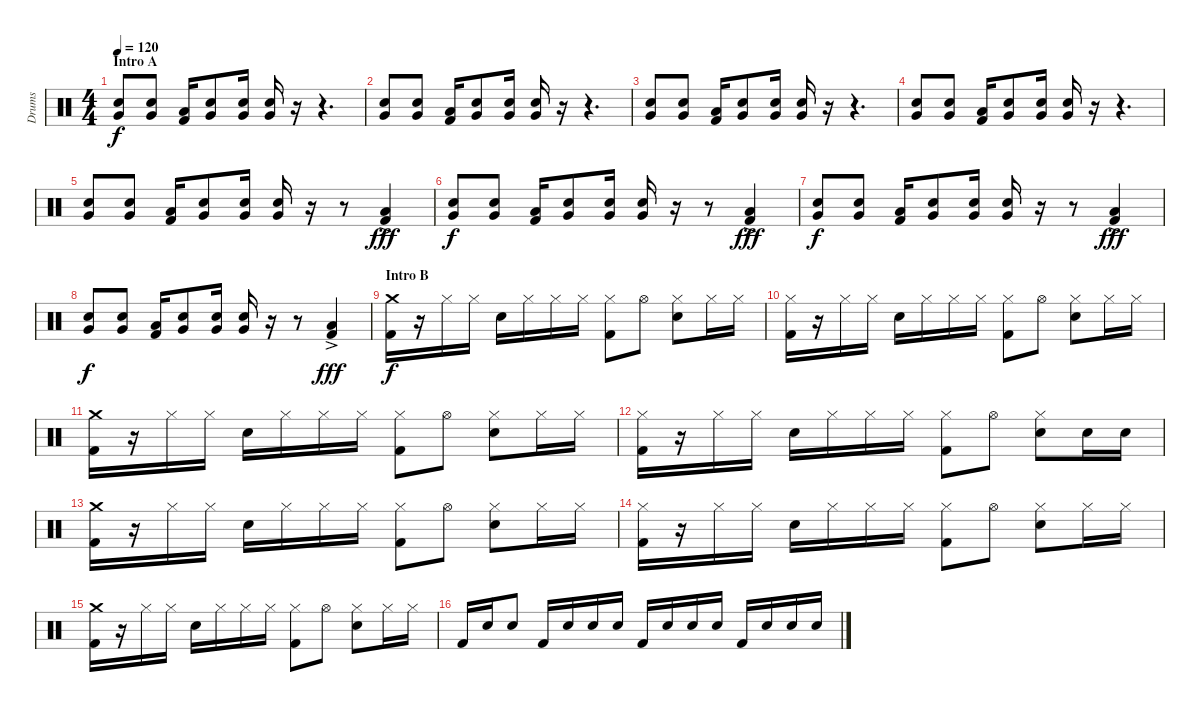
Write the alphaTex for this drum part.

\track ("Drums" "Drums") {instrument percussion}
\staff {score}
\articulation defaults
\ts (4 4)
\section ("" "Intro A")
\tempo 120
\clef neutral
\ks c
("Very Low Tom (hit)" "Electric Snare (hit)").8{dy f} ("Very Low Tom (hit)" "Electric Snare (hit)").8 ("Low Floor Tom (hit)" "Kick (hit) 2").16 ("Very Low Tom (hit)" "Electric Snare (hit)").8 ("Very Low Tom (hit)" "Electric Snare (hit)").16 ("Very Low Tom (hit)" "Electric Snare (hit)").16 r.16 r.4{d} |
("Very Low Tom (hit)" "Electric Snare (hit)").8 ("Very Low Tom (hit)" "Electric Snare (hit)").8 ("Low Floor Tom (hit)" "Kick (hit) 2").16 ("Very Low Tom (hit)" "Electric Snare (hit)").8 ("Very Low Tom (hit)" "Electric Snare (hit)").16 ("Very Low Tom (hit)" "Electric Snare (hit)").16 r.16 r.4{d} |
("Very Low Tom (hit)" "Electric Snare (hit)").8 ("Very Low Tom (hit)" "Electric Snare (hit)").8 ("Low Floor Tom (hit)" "Kick (hit) 2").16 ("Very Low Tom (hit)" "Electric Snare (hit)").8 ("Very Low Tom (hit)" "Electric Snare (hit)").16 ("Very Low Tom (hit)" "Electric Snare (hit)").16 r.16 r.4{d} |
("Very Low Tom (hit)" "Electric Snare (hit)").8 ("Very Low Tom (hit)" "Electric Snare (hit)").8 ("Low Floor Tom (hit)" "Kick (hit) 2").16 ("Very Low Tom (hit)" "Electric Snare (hit)").8 ("Very Low Tom (hit)" "Electric Snare (hit)").16 ("Very Low Tom (hit)" "Electric Snare (hit)").16 r.16 r.4{d} |
("Very Low Tom (hit)" "Electric Snare (hit)").8 ("Very Low Tom (hit)" "Electric Snare (hit)").8 ("Low Floor Tom (hit)" "Kick (hit) 2").16 ("Very Low Tom (hit)" "Electric Snare (hit)").8 ("Very Low Tom (hit)" "Electric Snare (hit)").16 ("Very Low Tom (hit)" "Electric Snare (hit)").16 r.16 r.8 ("Low Floor Tom (hit)"{ac} "Kick (hit) 2"{ac}).4{dy fff} |
("Very Low Tom (hit)" "Electric Snare (hit)").8{dy f} ("Very Low Tom (hit)" "Electric Snare (hit)").8 ("Low Floor Tom (hit)" "Kick (hit) 2").16 ("Very Low Tom (hit)" "Electric Snare (hit)").8 ("Very Low Tom (hit)" "Electric Snare (hit)").16 ("Very Low Tom (hit)" "Electric Snare (hit)").16 r.16 r.8 ("Low Floor Tom (hit)"{ac} "Kick (hit) 2"{ac}).4{dy fff} |
("Very Low Tom (hit)" "Electric Snare (hit)").8{dy f} ("Very Low Tom (hit)" "Electric Snare (hit)").8 ("Low Floor Tom (hit)" "Kick (hit) 2").16 ("Very Low Tom (hit)" "Electric Snare (hit)").8 ("Very Low Tom (hit)" "Electric Snare (hit)").16 ("Very Low Tom (hit)" "Electric Snare (hit)").16 r.16 r.8 ("Low Floor Tom (hit)"{ac} "Kick (hit) 2"{ac}).4{dy fff} |
("Very Low Tom (hit)" "Electric Snare (hit)").8{dy f} ("Very Low Tom (hit)" "Electric Snare (hit)").8 ("Low Floor Tom (hit)" "Kick (hit) 2").16 ("Very Low Tom (hit)" "Electric Snare (hit)").8 ("Very Low Tom (hit)" "Electric Snare (hit)").16 ("Very Low Tom (hit)" "Electric Snare (hit)").16 r.16 r.8 ("Low Floor Tom (hit)"{ac} "Kick (hit) 2"{ac}).4{dy fff} |
\section ("" "Intro B")
("Crash medium (hit)" "Kick (hit) 2").16{dy f} r.16 "Hi-Hat (closed)".16 "Hi-Hat (closed)".16 "Electric Snare (hit)".16 "Hi-Hat (closed)".16 "Hi-Hat (closed)".16 "Hi-Hat (closed)".16 ("Hi-Hat (closed)" "Kick (hit) 2").8 "Hi-Hat (open)".8 ("Hi-Hat (closed)" "Electric Snare (hit)").8 "Hi-Hat (closed)".16 "Hi-Hat (closed)".16 |
("Hi-Hat (closed)" "Kick (hit) 2").16 r.16 "Hi-Hat (closed)".16 "Hi-Hat (closed)".16 "Electric Snare (hit)".16 "Hi-Hat (closed)".16 "Hi-Hat (closed)".16 "Hi-Hat (closed)".16 ("Hi-Hat (closed)" "Kick (hit) 2").8 "Hi-Hat (open)".8 ("Hi-Hat (closed)" "Electric Snare (hit)").8 "Hi-Hat (closed)".16 "Hi-Hat (closed)".16 |
("Crash medium (hit)" "Kick (hit) 2").16 r.16 "Hi-Hat (closed)".16 "Hi-Hat (closed)".16 "Electric Snare (hit)".16 "Hi-Hat (closed)".16 "Hi-Hat (closed)".16 "Hi-Hat (closed)".16 ("Hi-Hat (closed)" "Kick (hit) 2").8 "Hi-Hat (open)".8 ("Hi-Hat (closed)" "Electric Snare (hit)").8 "Hi-Hat (closed)".16 "Hi-Hat (closed)".16 |
("Hi-Hat (closed)" "Kick (hit) 2").16 r.16 "Hi-Hat (closed)".16 "Hi-Hat (closed)".16 "Electric Snare (hit)".16 "Hi-Hat (closed)".16 "Hi-Hat (closed)".16 "Hi-Hat (closed)".16 ("Hi-Hat (closed)" "Kick (hit) 2").8 "Hi-Hat (open)".8 ("Hi-Hat (closed)" "Electric Snare (hit)").8 "Electric Snare (hit)".16 "Electric Snare (hit)".16 |
("Crash medium (hit)" "Kick (hit) 2").16 r.16 "Hi-Hat (closed)".16 "Hi-Hat (closed)".16 "Electric Snare (hit)".16 "Hi-Hat (closed)".16 "Hi-Hat (closed)".16 "Hi-Hat (closed)".16 ("Hi-Hat (closed)" "Kick (hit) 2").8 "Hi-Hat (open)".8 ("Hi-Hat (closed)" "Electric Snare (hit)").8 "Hi-Hat (closed)".16 "Hi-Hat (closed)".16 |
("Hi-Hat (closed)" "Kick (hit) 2").16 r.16 "Hi-Hat (closed)".16 "Hi-Hat (closed)".16 "Electric Snare (hit)".16 "Hi-Hat (closed)".16 "Hi-Hat (closed)".16 "Hi-Hat (closed)".16 ("Hi-Hat (closed)" "Kick (hit) 2").8 "Hi-Hat (open)".8 ("Hi-Hat (closed)" "Electric Snare (hit)").8 "Hi-Hat (closed)".16 "Hi-Hat (closed)".16 |
("Crash medium (hit)" "Kick (hit) 2").16 r.16 "Hi-Hat (closed)".16 "Hi-Hat (closed)".16 "Electric Snare (hit)".16 "Hi-Hat (closed)".16 "Hi-Hat (closed)".16 "Hi-Hat (closed)".16 ("Hi-Hat (closed)" "Kick (hit) 2").8 "Hi-Hat (open)".8 ("Hi-Hat (closed)" "Electric Snare (hit)").8 "Hi-Hat (closed)".16 "Hi-Hat (closed)".16 |
"Kick (hit) 2".16 "Electric Snare (hit)".16 "Electric Snare (hit)".8 "Kick (hit) 2".16 "Electric Snare (hit)".16 "Electric Snare (hit)".16 "Electric Snare (hit)".16 "Kick (hit) 2".16 "Electric Snare (hit)".16 "Electric Snare (hit)".16 "Electric Snare (hit)".16 "Kick (hit) 2".16 "Electric Snare (hit)".16 "Electric Snare (hit)".16 "Electric Snare (hit)".16
